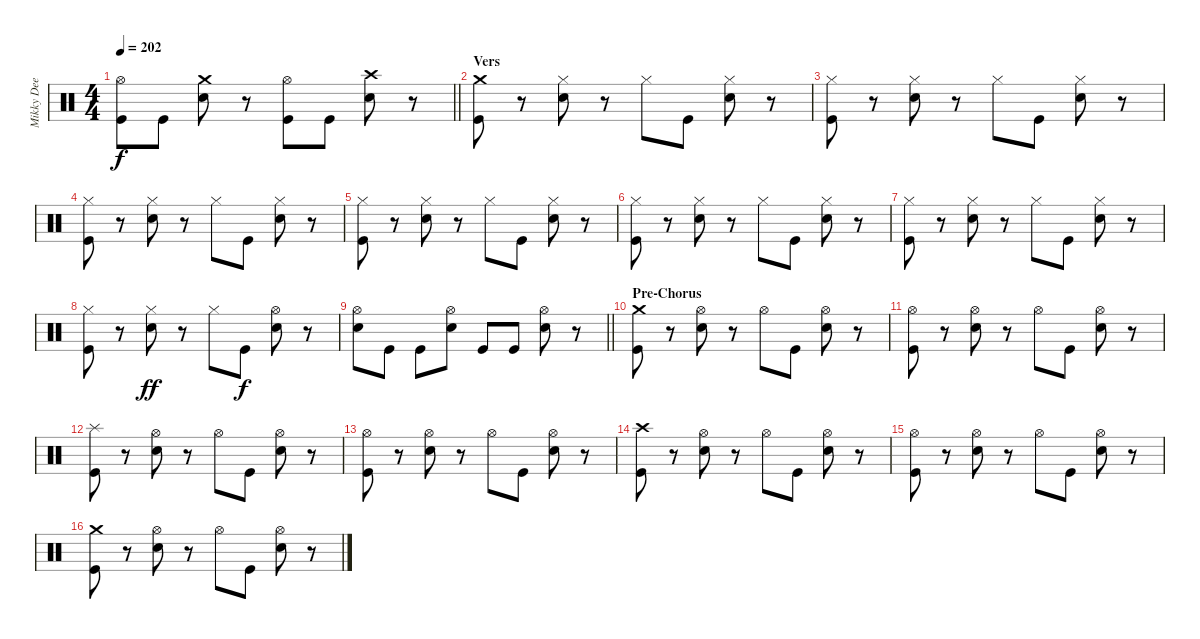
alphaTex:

\track ("Mikky Dee" "Mikky Dee") {instrument percussion}
\staff {score}
\articulation defaults
\ts (4 4)
\tempo 202
\clef neutral
\barLineRight lightlight
\ks c
("Hi-Hat (open)" "Kick (hit)").8{dy f} "Kick (hit)".8 ("Crash medium (hit)" "Electric Snare (hit)").8 r.8 ("Hi-Hat (open)" "Kick (hit)").8 "Kick (hit)".8 ("Crash high (hit)" "Electric Snare (hit)").8 r.8 |
\section ("" "Vers")
("Crash medium (hit)" "Kick (hit)").8 r.8 ("Hi-Hat (closed)" "Electric Snare (hit)").8 r.8 "Hi-Hat (closed)".8 "Kick (hit)".8 ("Hi-Hat (closed)" "Electric Snare (hit)").8 r.8 |
("Hi-Hat (closed)" "Kick (hit)").8 r.8 ("Hi-Hat (closed)" "Electric Snare (hit)").8 r.8 "Hi-Hat (closed)".8 "Kick (hit)".8 ("Hi-Hat (closed)" "Electric Snare (hit)").8 r.8 |
("Hi-Hat (closed)" "Kick (hit)").8 r.8 ("Hi-Hat (closed)" "Electric Snare (hit)").8 r.8 "Hi-Hat (closed)".8 "Kick (hit)".8 ("Hi-Hat (closed)" "Electric Snare (hit)").8 r.8 |
("Hi-Hat (closed)" "Kick (hit)").8 r.8 ("Hi-Hat (closed)" "Electric Snare (hit)").8 r.8 "Hi-Hat (closed)".8 "Kick (hit)".8 ("Hi-Hat (closed)" "Electric Snare (hit)").8 r.8 |
("Hi-Hat (closed)" "Kick (hit)").8 r.8 ("Hi-Hat (closed)" "Electric Snare (hit)").8 r.8 "Hi-Hat (closed)".8 "Kick (hit)".8 ("Hi-Hat (closed)" "Electric Snare (hit)").8 r.8 |
("Hi-Hat (closed)" "Kick (hit)").8 r.8 ("Hi-Hat (closed)" "Electric Snare (hit)").8 r.8 "Hi-Hat (closed)".8 "Kick (hit)".8 ("Hi-Hat (closed)" "Electric Snare (hit)").8 r.8 |
("Hi-Hat (closed)" "Kick (hit)").8 r.8 ("Hi-Hat (closed)" "Electric Snare (hit)").8{dy ff} r.8 "Hi-Hat (closed)".8 "Kick (hit)".8{dy f} ("Hi-Hat (open)" "Electric Snare (hit)").8 r.8 |
\barLineRight lightlight
("Hi-Hat (open)" "Electric Snare (hit)").8 "Kick (hit)".8 "Kick (hit)".8 ("Hi-Hat (open)" "Electric Snare (hit)").8 "Kick (hit)".8 "Kick (hit)".8 ("Hi-Hat (open)" "Electric Snare (hit)").8 r.8 |
\section ("" "Pre-Chorus")
("Crash medium (hit)" "Kick (hit)").8 r.8 ("Hi-Hat (open)" "Electric Snare (hit)").8 r.8 "Hi-Hat (open)".8 "Kick (hit)".8 ("Hi-Hat (open)" "Electric Snare (hit)").8 r.8 |
("Hi-Hat (open)" "Kick (hit)").8 r.8 ("Hi-Hat (open)" "Electric Snare (hit)").8 r.8 "Hi-Hat (open)".8 "Kick (hit)".8 ("Hi-Hat (open)" "Electric Snare (hit)").8 r.8 |
("Splash (hit)" "Kick (hit)").8 r.8 ("Hi-Hat (open)" "Electric Snare (hit)").8 r.8 "Hi-Hat (open)".8 "Kick (hit)".8 ("Hi-Hat (open)" "Electric Snare (hit)").8 r.8 |
("Hi-Hat (open)" "Kick (hit)").8 r.8 ("Hi-Hat (open)" "Electric Snare (hit)").8 r.8 "Hi-Hat (open)".8 "Kick (hit)".8 ("Hi-Hat (open)" "Electric Snare (hit)").8 r.8 |
("Crash high (hit)" "Kick (hit)").8 r.8 ("Hi-Hat (open)" "Electric Snare (hit)").8 r.8 "Hi-Hat (open)".8 "Kick (hit)".8 ("Hi-Hat (open)" "Electric Snare (hit)").8 r.8 |
("Hi-Hat (open)" "Kick (hit)").8 r.8 ("Hi-Hat (open)" "Electric Snare (hit)").8 r.8 "Hi-Hat (open)".8 "Kick (hit)".8 ("Hi-Hat (open)" "Electric Snare (hit)").8 r.8 |
("Crash medium (hit)" "Kick (hit)").8 r.8 ("Hi-Hat (open)" "Electric Snare (hit)").8 r.8 "Hi-Hat (open)".8 "Kick (hit)".8 ("Hi-Hat (open)" "Electric Snare (hit)").8 r.8
